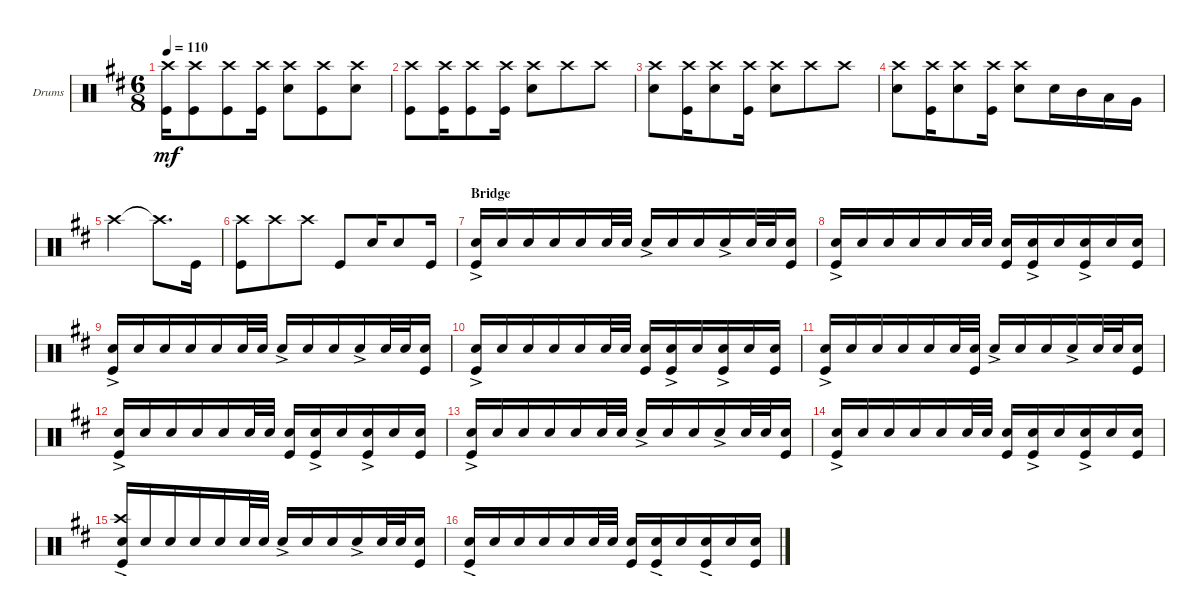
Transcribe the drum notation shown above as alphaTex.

\defaultSystemsLayout 4
\bracketExtendMode groupsimilarinstruments
\firstSystemTrackNameOrientation horizontal
\otherSystemsTrackNameOrientation horizontal
\track ("Drumkit" "Drums") {instrument percussion}
\staff {score}
\articulation defaults
\ts (6 8)
\tempo 110
\clef neutral
\ks d
("Kick (hit)" "Crash high (hit)").16{dy mf} ("Kick (hit)" "Crash high (hit)").8 ("Kick (hit)" "Crash high (hit)").8 ("Kick (hit)" "Crash high (hit)").16 ("Snare (hit) 2" "Crash high (hit)").8 ("Kick (hit)" "Crash high (hit)").8 ("Snare (hit) 2" "Crash high (hit)").8 |
("Kick (hit)" "Crash high (hit)").8 ("Kick (hit)" "Crash high (hit)").16 ("Kick (hit)" "Crash high (hit)").8 ("Kick (hit)" "Crash high (hit)").16 ("Snare (hit) 2" "Crash high (hit)").8 "Crash high (hit)".8 "Crash high (hit)".8 |
("Crash high (hit)" "Snare (hit) 2").8 ("Kick (hit)" "Crash high (hit)").16 ("Crash high (hit)" "Snare (hit) 2").8 ("Kick (hit)" "Crash high (hit)").16 ("Snare (hit) 2" "Crash high (hit)").8 "Crash high (hit)".8 "Crash high (hit)".8 |
("Crash high (hit)" "Snare (hit) 2").8 ("Kick (hit)" "Crash high (hit)").16 ("Crash high (hit)" "Snare (hit) 2").8 ("Kick (hit)" "Crash high (hit)").16 ("Snare (hit) 2" "Crash high (hit)").8 "Snare (hit) 2".16 "Mid Tom (hit)".16 "Low Tom (hit)".16 "Very Low Tom (hit)".16 |
"Crash high (hit)".2 "Crash high (hit)"{t}.8{d} "Kick (hit)".16 |
("Kick (hit)" "Crash high (hit)").8 "Crash high (hit)".8 "Crash high (hit)".8 "Kick (hit)".8 "Snare (hit) 2".16 "Snare (hit) 2".8 "Kick (hit)".16 |
\section ("" "Bridge")
("Kick (hit)" "Snare (hit) 2"{ac}).16 "Snare (hit) 2".16 "Snare (hit) 2".16 "Snare (hit) 2".16 "Snare (hit) 2".16 "Snare (hit) 2".32 "Snare (hit) 2".32 "Snare (hit) 2"{ac}.16 "Snare (hit) 2".16 "Snare (hit) 2".16 "Snare (hit) 2"{ac}.16 "Snare (hit) 2".32 "Snare (hit) 2".32 ("Snare (hit) 2" "Kick (hit)").16 |
("Kick (hit)" "Snare (hit) 2"{ac}).16 "Snare (hit) 2".16 "Snare (hit) 2".16 "Snare (hit) 2".16 "Snare (hit) 2".16 "Snare (hit) 2".32 "Snare (hit) 2".32 ("Kick (hit)" "Snare (hit) 2").16 ("Kick (hit)" "Snare (hit) 2"{ac}).16 "Snare (hit) 2".16 ("Kick (hit)" "Snare (hit) 2"{ac}).16 "Snare (hit) 2".16 ("Kick (hit)" "Snare (hit) 2").16 |
("Kick (hit)" "Snare (hit) 2"{ac}).16 "Snare (hit) 2".16 "Snare (hit) 2".16 "Snare (hit) 2".16 "Snare (hit) 2".16 "Snare (hit) 2".32 "Snare (hit) 2".32 "Snare (hit) 2"{ac}.16 "Snare (hit) 2".16 "Snare (hit) 2".16 "Snare (hit) 2"{ac}.16 "Snare (hit) 2".32 "Snare (hit) 2".32 ("Snare (hit) 2" "Kick (hit)").16 |
("Kick (hit)" "Snare (hit) 2"{ac}).16 "Snare (hit) 2".16 "Snare (hit) 2".16 "Snare (hit) 2".16 "Snare (hit) 2".16 "Snare (hit) 2".32 "Snare (hit) 2".32 ("Kick (hit)" "Snare (hit) 2").16 ("Kick (hit)" "Snare (hit) 2"{ac}).16 "Snare (hit) 2".16 ("Kick (hit)" "Snare (hit) 2"{ac}).16 "Snare (hit) 2".16 ("Kick (hit)" "Snare (hit) 2").16 |
("Kick (hit)" "Snare (hit) 2"{ac}).16 "Snare (hit) 2".16 "Snare (hit) 2".16 "Snare (hit) 2".16 "Snare (hit) 2".16 "Snare (hit) 2".32 ("Snare (hit) 2" "Kick (hit)").32 "Snare (hit) 2"{ac}.16 "Snare (hit) 2".16 "Snare (hit) 2".16 "Snare (hit) 2"{ac}.16 "Snare (hit) 2".32 "Snare (hit) 2".32 ("Snare (hit) 2" "Kick (hit)").16 |
("Kick (hit)" "Snare (hit) 2"{ac}).16 "Snare (hit) 2".16 "Snare (hit) 2".16 "Snare (hit) 2".16 "Snare (hit) 2".16 "Snare (hit) 2".32 "Snare (hit) 2".32 ("Kick (hit)" "Snare (hit) 2").16 ("Kick (hit)" "Snare (hit) 2"{ac}).16 "Snare (hit) 2".16 ("Kick (hit)" "Snare (hit) 2"{ac}).16 "Snare (hit) 2".16 ("Kick (hit)" "Snare (hit) 2").16 |
("Kick (hit)" "Snare (hit) 2"{ac}).16 "Snare (hit) 2".16 "Snare (hit) 2".16 "Snare (hit) 2".16 "Snare (hit) 2".16 "Snare (hit) 2".32 "Snare (hit) 2".32 "Snare (hit) 2"{ac}.16 "Snare (hit) 2".16 "Snare (hit) 2".16 "Snare (hit) 2"{ac}.16 "Snare (hit) 2".32 "Snare (hit) 2".32 ("Snare (hit) 2" "Kick (hit)").16 |
("Kick (hit)" "Snare (hit) 2"{ac}).16 "Snare (hit) 2".16 "Snare (hit) 2".16 "Snare (hit) 2".16 "Snare (hit) 2".16 "Snare (hit) 2".32 "Snare (hit) 2".32 ("Kick (hit)" "Snare (hit) 2").16 ("Kick (hit)" "Snare (hit) 2"{ac}).16 "Snare (hit) 2".16 ("Kick (hit)" "Snare (hit) 2"{ac}).16 "Snare (hit) 2".16 ("Kick (hit)" "Snare (hit) 2").16 |
("Kick (hit)" "Snare (hit) 2"{ac} "Crash high (hit)").16 "Snare (hit) 2".16 "Snare (hit) 2".16 "Snare (hit) 2".16 "Snare (hit) 2".16 "Snare (hit) 2".32 "Snare (hit) 2".32 "Snare (hit) 2"{ac}.16 "Snare (hit) 2".16 "Snare (hit) 2".16 "Snare (hit) 2"{ac}.16 "Snare (hit) 2".32 "Snare (hit) 2".32 ("Snare (hit) 2" "Kick (hit)").16 |
("Kick (hit)" "Snare (hit) 2"{ac}).16 "Snare (hit) 2".16 "Snare (hit) 2".16 "Snare (hit) 2".16 "Snare (hit) 2".16 "Snare (hit) 2".32 "Snare (hit) 2".32 ("Kick (hit)" "Snare (hit) 2").16 ("Kick (hit)" "Snare (hit) 2"{ac}).16 "Snare (hit) 2".16 ("Kick (hit)" "Snare (hit) 2"{ac}).16 "Snare (hit) 2".16 ("Kick (hit)" "Snare (hit) 2").16
